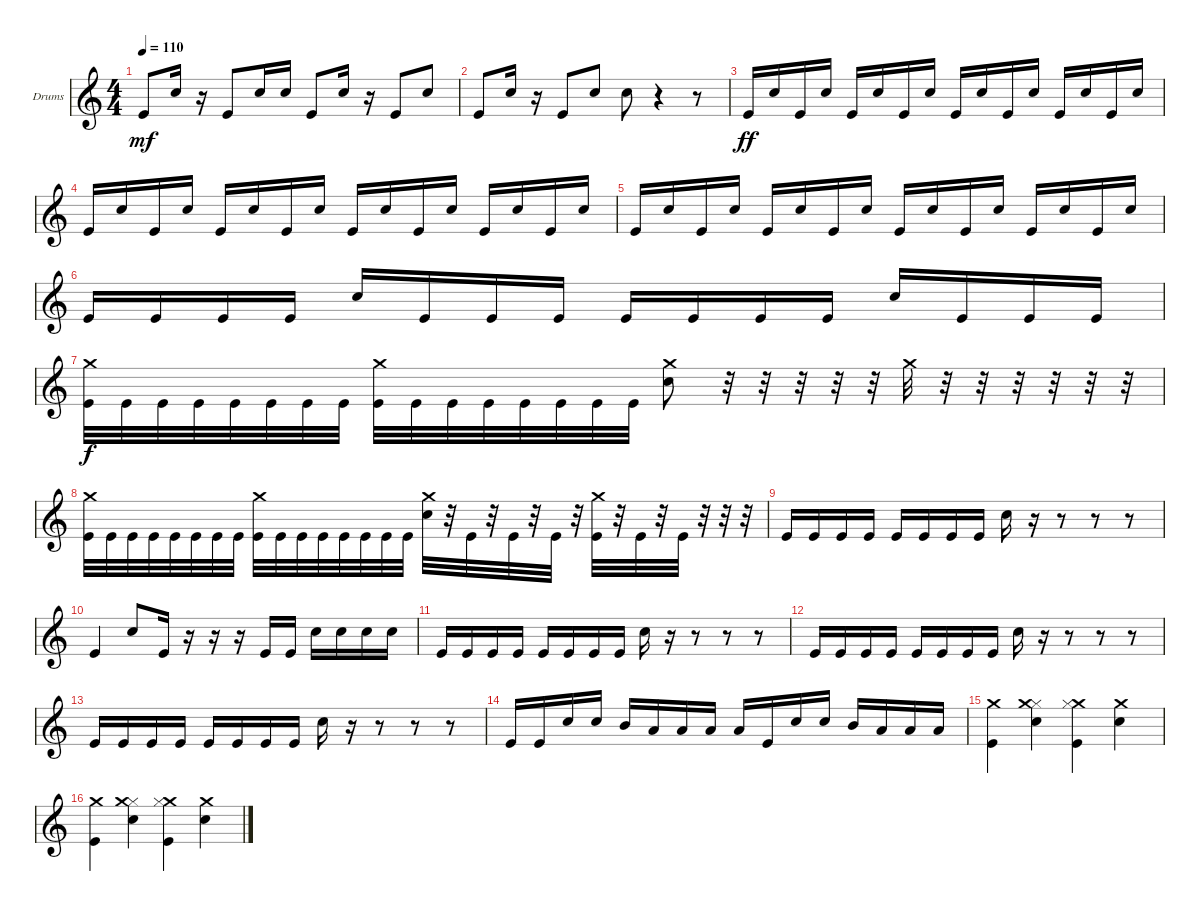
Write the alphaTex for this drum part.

\defaultSystemsLayout 4
\bracketExtendMode groupsimilarinstruments
\firstSystemTrackNameOrientation horizontal
\otherSystemsTrackNameOrientation horizontal
\track ("Drumkit" "Drums") {instrument percussion}
\staff {score}
\articulation defaults
\ts (4 4)
\tempo 110
\clef g2
\ks c "Kick (hit)".8{dy mf} "Snare (hit) 2".16
r.16 "Kick (hit)".8 "Snare (hit) 2".16 "Snare (hit) 2".16 "Kick (hit)".8 "Snare (hit) 2".16 r.16 "Kick (hit)".8 "Snare (hit) 2".8 |
"Kick (hit)".8 "Snare (hit) 2".16 r.16 "Kick (hit)".8 "Snare (hit) 2".8 "Snare (hit) 2".8 r.4 r.8 |
"Kick (hit)".16{dy ff} "Snare (hit) 2".16 "Kick (hit)".16 "Snare (hit) 2".16 "Kick (hit)".16 "Snare (hit) 2".16 "Kick (hit)".16 "Snare (hit) 2".16 "Kick (hit)".16 "Snare (hit) 2".16 "Kick (hit)".16 "Snare (hit) 2".16 "Kick (hit)".16 "Snare (hit) 2".16 "Kick (hit)".16 "Snare (hit) 2".16 |
"Kick (hit)".16 "Snare (hit) 2".16 "Kick (hit)".16 "Snare (hit) 2".16 "Kick (hit)".16 "Snare (hit) 2".16 "Kick (hit)".16 "Snare (hit) 2".16 "Kick (hit)".16 "Snare (hit) 2".16 "Kick (hit)".16 "Snare (hit) 2".16 "Kick (hit)".16 "Snare (hit) 2".16 "Kick (hit)".16 "Snare (hit) 2".16 |
"Kick (hit)".16 "Snare (hit) 2".16 "Kick (hit)".16 "Snare (hit) 2".16 "Kick (hit)".16 "Snare (hit) 2".16 "Kick (hit)".16 "Snare (hit) 2".16 "Kick (hit)".16 "Snare (hit) 2".16 "Kick (hit)".16 "Snare (hit) 2".16 "Kick (hit)".16 "Snare (hit) 2".16 "Kick (hit)".16 "Snare (hit) 2".16 |
"Kick (hit)".16 "Kick (hit)".16 "Kick (hit)".16 "Kick (hit)".16 "Snare (hit) 2".16 "Kick (hit)".16 "Kick (hit)".16 "Kick (hit)".16 "Kick (hit)".16 "Kick (hit)".16 "Kick (hit)".16 "Kick (hit)".16 "Snare (hit) 2".16 "Kick (hit)".16 "Kick (hit)".16 "Kick (hit)".16 |
("Kick (hit)" "Crash medium (hit)").32{dy f} "Kick (hit)".32 "Kick (hit)".32 "Kick (hit)".32 "Kick (hit)".32 "Kick (hit)".32 "Kick (hit)".32 "Kick (hit)".32 ("Kick (hit)" "Crash medium (hit)").32 "Kick (hit)".32 "Kick (hit)".32 "Kick (hit)".32 "Kick (hit)".32 "Kick (hit)".32 "Kick (hit)".32 "Kick (hit)".32 ("Snare (hit) 2" "Crash medium (hit)").8 r.32 r.32 r.32 r.32 r.32 "Crash medium (hit)".32 r.32 r.32 r.32 r.32 r.32 r.32 |
("Kick (hit)" "Crash medium (hit)").32 "Kick (hit)".32 "Kick (hit)".32 "Kick (hit)".32 "Kick (hit)".32 "Kick (hit)".32 "Kick (hit)".32 "Kick (hit)".32 ("Kick (hit)" "Crash medium (hit)").32 "Kick (hit)".32 "Kick (hit)".32 "Kick (hit)".32 "Kick (hit)".32 "Kick (hit)".32 "Kick (hit)".32 "Kick (hit)".32 ("Snare (hit) 2" "Crash medium (hit)").32 r.32 "Kick (hit)".32 r.32 "Kick (hit)".32 r.32 "Kick (hit)".32 r.32 ("Kick (hit)" "Crash medium (hit)").32 r.32 "Kick (hit)".32 r.32 "Kick (hit)".32 r.32 r.32 r.32 |
"Kick (hit)".16 "Kick (hit)".16 "Kick (hit)".16 "Kick (hit)".16 "Kick (hit)".16 "Kick (hit)".16 "Kick (hit)".16 "Kick (hit)".16 "Snare (hit) 2".16 r.16 r.8 r.8 r.8 |
"Kick (hit)".4 "Snare (hit) 2".8 "Kick (hit)".16 r.16 r.16 r.16 "Kick (hit)".16 "Kick (hit)".16 "Snare (hit) 2".16 "Snare (hit) 2".16 "Snare (hit) 2".16 "Snare (hit) 2".16 |
"Kick (hit)".16 "Kick (hit)".16 "Kick (hit)".16 "Kick (hit)".16 "Kick (hit)".16 "Kick (hit)".16 "Kick (hit)".16 "Kick (hit)".16 "Snare (hit) 2".16 r.16 r.8 r.8 r.8 |
"Kick (hit)".16 "Kick (hit)".16 "Kick (hit)".16 "Kick (hit)".16 "Kick (hit)".16 "Kick (hit)".16 "Kick (hit)".16 "Kick (hit)".16 "Snare (hit) 2".16 r.16 r.8 r.8 r.8 |
"Kick (hit)".16 "Kick (hit)".16 "Kick (hit)".16 "Kick (hit)".16 "Kick (hit)".16 "Kick (hit)".16 "Kick (hit)".16 "Kick (hit)".16 "Snare (hit) 2".16 r.16 r.8 r.8 r.8 |
"Kick (hit)".16 "Kick (hit)".16 "Snare (hit) 2".16 "Snare (hit) 2".16 "Mid Tom (hit)".16 "Low Tom (hit)".16 "Low Tom (hit)".16 "Low Tom (hit)".16 "Low Tom (hit)".16 "Kick (hit)".16 "Snare (hit) 2".16 "Snare (hit) 2".16 "Mid Tom (hit)".16 "Low Tom (hit)".16 "Low Tom (hit)".16 "Low Tom (hit)".16 |
("Kick (hit)" "Crash medium (hit)").4 ("Snare (hit) 2" "Hi-Hat (closed)" "Crash medium (hit)").4 ("Kick (hit)" "Crash medium (hit)" "Hi-Hat (closed)").4 ("Snare (hit) 2" "Crash medium (hit)").4 |
("Kick (hit)" "Crash medium (hit)").4 ("Snare (hit) 2" "Hi-Hat (closed)" "Crash medium (hit)").4 ("Kick (hit)" "Crash medium (hit)" "Hi-Hat (closed)").4 ("Snare (hit) 2" "Crash medium (hit)").4
